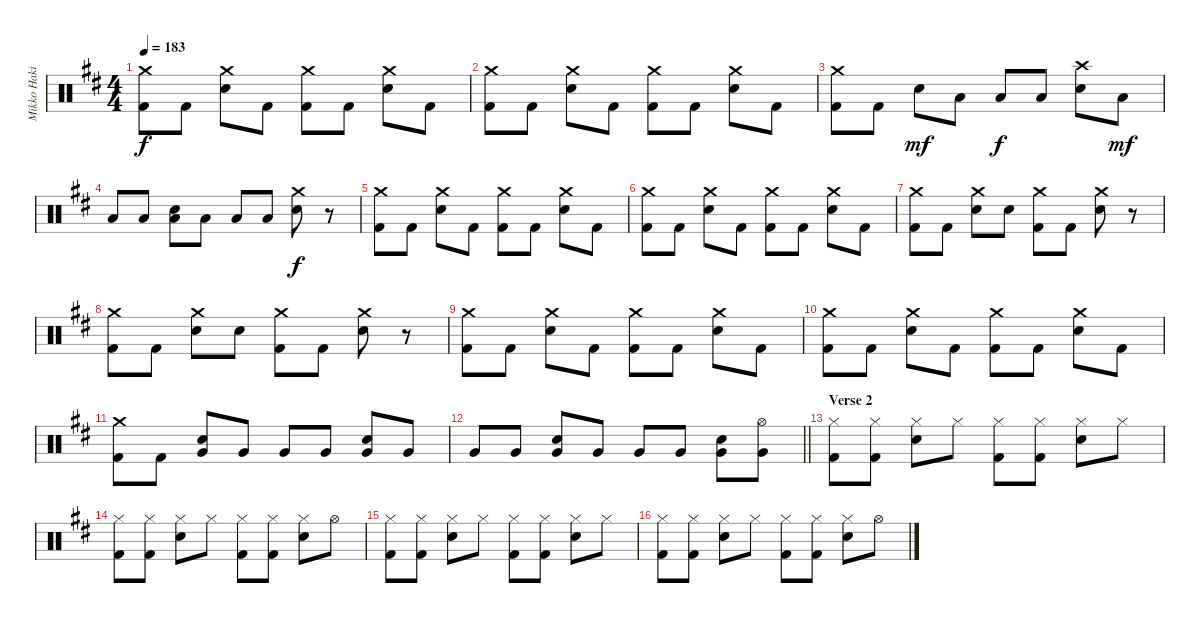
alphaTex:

\track ("Mikko Hakila - drums" "Mikko Haki") {instrument percussion}
\staff {score}
\articulation defaults
\ts (4 4)
\tempo 183
\clef neutral
\ks bminor
("Crash medium (hit)" "Kick (hit) 2").8{dy f} "Kick (hit) 2".8 ("Crash medium (hit)" "Electric Snare (hit)").8 "Kick (hit) 2".8 ("Crash medium (hit)" "Kick (hit) 2").8 "Kick (hit) 2".8 ("Crash medium (hit)" "Electric Snare (hit)").8 "Kick (hit) 2".8 |
("Crash medium (hit)" "Kick (hit) 2").8 "Kick (hit) 2".8 ("Crash medium (hit)" "Electric Snare (hit)").8 "Kick (hit) 2".8 ("Crash medium (hit)" "Kick (hit) 2").8 "Kick (hit) 2".8 ("Crash medium (hit)" "Electric Snare (hit)").8 "Kick (hit) 2".8 |
("Crash medium (hit)" "Kick (hit) 2").8 "Kick (hit) 2".8 "Electric Snare (hit)".8{dy mf} "Low Tom (hit)".8 "Low Tom (hit)".8{dy f} "Low Tom (hit)".8 ("Crash high (hit)" "Electric Snare (hit)").8 "Low Tom (hit)".8{dy mf} |
"Low Tom (hit)".8 "Low Tom (hit)".8 ("Electric Snare (hit)" "Low Tom (hit)").8 "Low Tom (hit)".8 "Low Tom (hit)".8 "Low Tom (hit)".8 ("Crash medium (hit)" "Electric Snare (hit)").8{dy f} r.8 |
("Crash medium (hit)" "Kick (hit) 2").8 "Kick (hit) 2".8 ("Crash medium (hit)" "Electric Snare (hit)").8 "Kick (hit) 2".8 ("Crash medium (hit)" "Kick (hit) 2").8 "Kick (hit) 2".8 ("Crash medium (hit)" "Electric Snare (hit)").8 "Kick (hit) 2".8 |
("Crash medium (hit)" "Kick (hit) 2").8 "Kick (hit) 2".8 ("Crash medium (hit)" "Electric Snare (hit)").8 "Kick (hit) 2".8 ("Crash medium (hit)" "Kick (hit) 2").8 "Kick (hit) 2".8 ("Crash medium (hit)" "Electric Snare (hit)").8 "Kick (hit) 2".8 |
("Crash medium (hit)" "Kick (hit) 2").8 "Kick (hit) 2".8 ("Crash medium (hit)" "Electric Snare (hit)").8 "Electric Snare (hit)".8 ("Crash medium (hit)" "Kick (hit) 2").8 "Kick (hit) 2".8 ("Crash medium (hit)" "Electric Snare (hit)").8 r.8 |
("Crash medium (hit)" "Kick (hit) 2").8 "Kick (hit) 2".8 ("Crash medium (hit)" "Electric Snare (hit)").8 "Electric Snare (hit)".8 ("Crash medium (hit)" "Kick (hit) 2").8 "Kick (hit) 2".8 ("Crash medium (hit)" "Electric Snare (hit)").8 r.8 |
("Crash medium (hit)" "Kick (hit) 2").8 "Kick (hit) 2".8 ("Crash medium (hit)" "Electric Snare (hit)").8 "Kick (hit) 2".8 ("Crash medium (hit)" "Kick (hit) 2").8 "Kick (hit) 2".8 ("Crash medium (hit)" "Electric Snare (hit)").8 "Kick (hit) 2".8 |
("Crash medium (hit)" "Kick (hit) 2").8 "Kick (hit) 2".8 ("Crash medium (hit)" "Electric Snare (hit)").8 "Kick (hit) 2".8 ("Crash medium (hit)" "Kick (hit) 2").8 "Kick (hit) 2".8 ("Crash medium (hit)" "Electric Snare (hit)").8 "Kick (hit) 2".8 |
("Crash medium (hit)" "Kick (hit) 2").8 "Kick (hit) 2".8 ("Electric Snare (hit)" "Very Low Tom (hit)").8 "Very Low Tom (hit)".8 "Very Low Tom (hit)".8 "Very Low Tom (hit)".8 ("Electric Snare (hit)" "Very Low Tom (hit)").8 "Very Low Tom (hit)".8 |
\barLineRight lightlight "Very Low Tom (hit)".8 "Very Low Tom (hit)".8
("Electric Snare (hit)" "Very Low Tom (hit)").8 "Very Low Tom (hit)".8 "Very Low Tom (hit)".8 "Very Low Tom (hit)".8 ("Electric Snare (hit)" "Very Low Tom (hit)").8 ("Hi-Hat (open)" "Very Low Tom (hit)").8 |
\section ("" "Verse 2")
("Hi-Hat (closed)" "Kick (hit) 2").8 ("Hi-Hat (closed)" "Kick (hit) 2").8 ("Hi-Hat (closed)" "Electric Snare (hit)").8 "Hi-Hat (closed)".8 ("Hi-Hat (closed)" "Kick (hit) 2").8 ("Hi-Hat (closed)" "Kick (hit) 2").8 ("Hi-Hat (closed)" "Electric Snare (hit)").8 "Hi-Hat (closed)".8 |
("Hi-Hat (closed)" "Kick (hit) 2").8 ("Hi-Hat (closed)" "Kick (hit) 2").8 ("Hi-Hat (closed)" "Electric Snare (hit)").8 "Hi-Hat (closed)".8 ("Hi-Hat (closed)" "Kick (hit) 2").8 ("Hi-Hat (closed)" "Kick (hit) 2").8 ("Hi-Hat (closed)" "Electric Snare (hit)").8 "Hi-Hat (open)".8 |
("Hi-Hat (closed)" "Kick (hit) 2").8 ("Hi-Hat (closed)" "Kick (hit) 2").8 ("Hi-Hat (closed)" "Electric Snare (hit)").8 "Hi-Hat (closed)".8 ("Hi-Hat (closed)" "Kick (hit) 2").8 ("Hi-Hat (closed)" "Kick (hit) 2").8 ("Hi-Hat (closed)" "Electric Snare (hit)").8 "Hi-Hat (closed)".8 |
("Hi-Hat (closed)" "Kick (hit) 2").8 ("Hi-Hat (closed)" "Kick (hit) 2").8 ("Hi-Hat (closed)" "Electric Snare (hit)").8 "Hi-Hat (closed)".8 ("Hi-Hat (closed)" "Kick (hit) 2").8 ("Hi-Hat (closed)" "Kick (hit) 2").8 ("Hi-Hat (closed)" "Electric Snare (hit)").8 "Hi-Hat (open)".8
